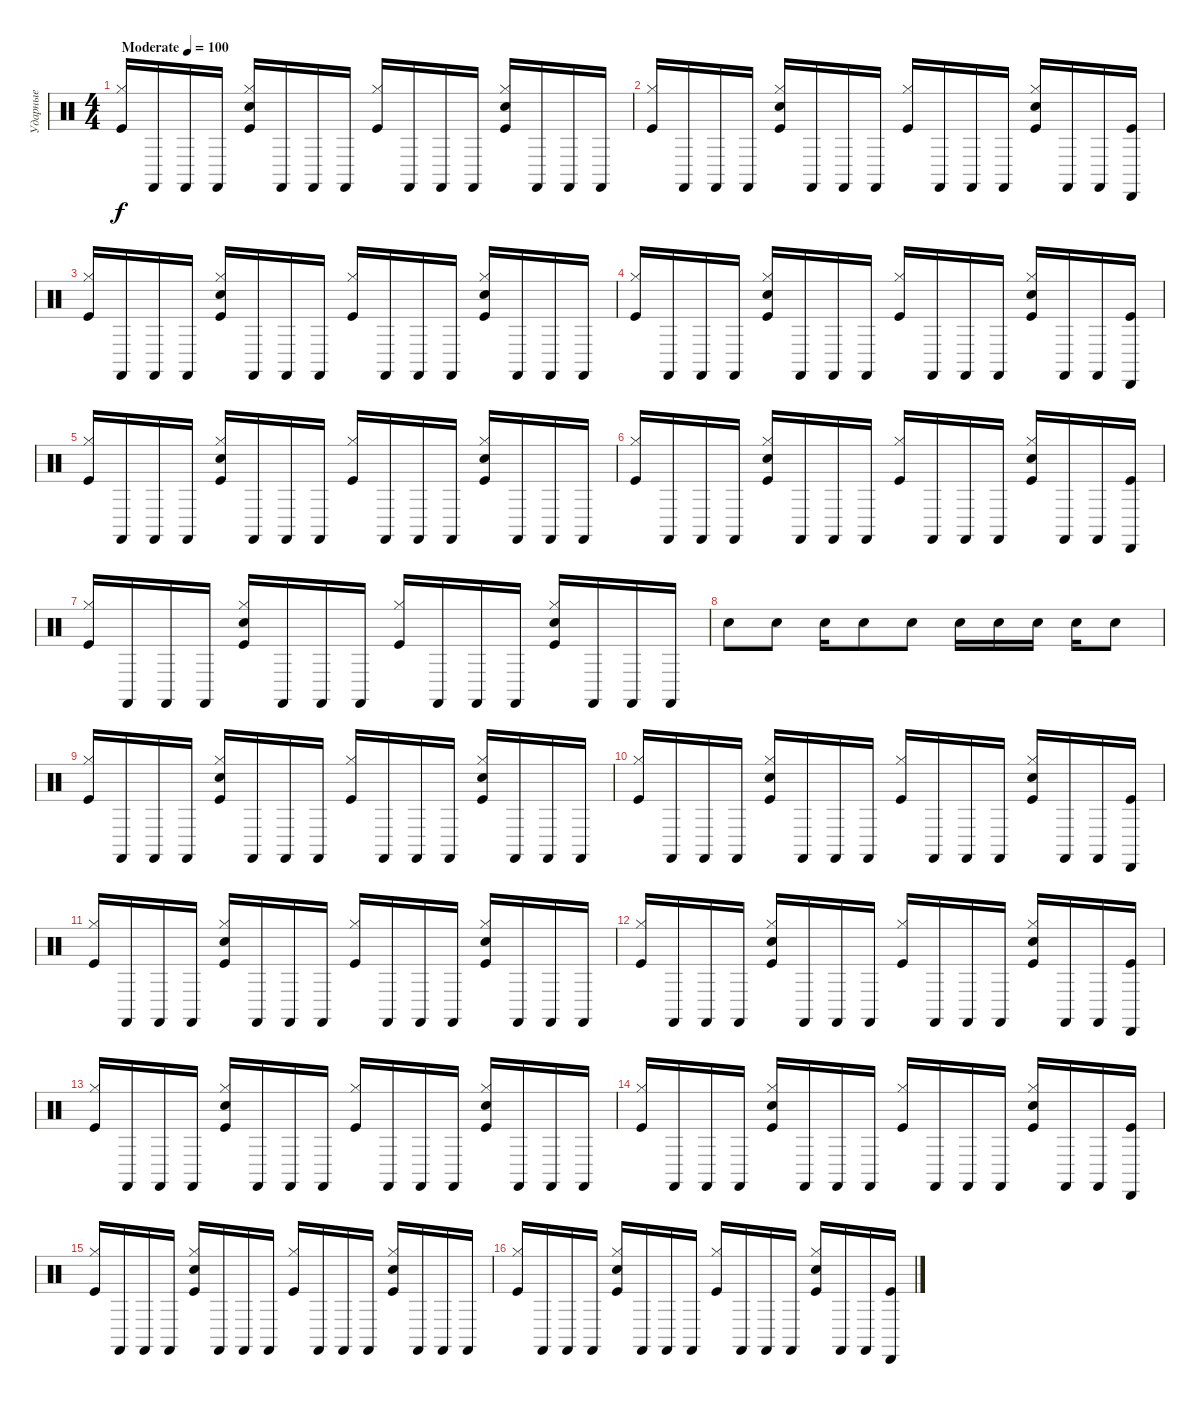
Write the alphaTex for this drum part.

\track ("Ударные" "Ударные") {instrument percussion}
\staff {score}
\articulation defaults
\ts (4 4)
\tempo (100 "Moderate")
\clef neutral
\ks c
("Kick (hit)" "Hi-Hat (closed)").16{dy f} "Castanets (hit)".16 "Castanets (hit)".16 "Castanets (hit)".16 ("Kick (hit)" "Hi-Hat (closed)" "Snare (hit) 2").16 "Castanets (hit)".16 "Castanets (hit)".16 "Castanets (hit)".16 ("Kick (hit)" "Hi-Hat (closed)").16 "Castanets (hit)".16 "Castanets (hit)".16 "Castanets (hit)".16 ("Kick (hit)" "Hi-Hat (closed)" "Snare (hit) 2").16 "Castanets (hit)".16 "Castanets (hit)".16 "Castanets (hit)".16 |
("Kick (hit)" "Hi-Hat (closed)").16 "Castanets (hit)".16 "Castanets (hit)".16 "Castanets (hit)".16 ("Kick (hit)" "Hi-Hat (closed)" "Snare (hit) 2").16 "Castanets (hit)".16 "Castanets (hit)".16 "Castanets (hit)".16 ("Kick (hit)" "Hi-Hat (closed)").16 "Castanets (hit)".16 "Castanets (hit)".16 "Castanets (hit)".16 ("Kick (hit)" "Hi-Hat (closed)" "Snare (hit) 2").16 "Castanets (hit)".16 "Castanets (hit)".16 ("Kick (hit)" "Cabasa (hit)").16 |
("Kick (hit)" "Hi-Hat (closed)").16 "Castanets (hit)".16 "Castanets (hit)".16 "Castanets (hit)".16 ("Kick (hit)" "Hi-Hat (closed)" "Snare (hit) 2").16 "Castanets (hit)".16 "Castanets (hit)".16 "Castanets (hit)".16 ("Kick (hit)" "Hi-Hat (closed)").16 "Castanets (hit)".16 "Castanets (hit)".16 "Castanets (hit)".16 ("Kick (hit)" "Hi-Hat (closed)" "Snare (hit) 2").16 "Castanets (hit)".16 "Castanets (hit)".16 "Castanets (hit)".16 |
("Kick (hit)" "Hi-Hat (closed)").16 "Castanets (hit)".16 "Castanets (hit)".16 "Castanets (hit)".16 ("Kick (hit)" "Hi-Hat (closed)" "Snare (hit) 2").16 "Castanets (hit)".16 "Castanets (hit)".16 "Castanets (hit)".16 ("Kick (hit)" "Hi-Hat (closed)").16 "Castanets (hit)".16 "Castanets (hit)".16 "Castanets (hit)".16 ("Kick (hit)" "Hi-Hat (closed)" "Snare (hit) 2").16 "Castanets (hit)".16 "Castanets (hit)".16 ("Kick (hit)" "Cabasa (hit)").16 |
("Kick (hit)" "Hi-Hat (closed)").16 "Castanets (hit)".16 "Castanets (hit)".16 "Castanets (hit)".16 ("Kick (hit)" "Hi-Hat (closed)" "Snare (hit) 2").16 "Castanets (hit)".16 "Castanets (hit)".16 "Castanets (hit)".16 ("Kick (hit)" "Hi-Hat (closed)").16 "Castanets (hit)".16 "Castanets (hit)".16 "Castanets (hit)".16 ("Kick (hit)" "Hi-Hat (closed)" "Snare (hit) 2").16 "Castanets (hit)".16 "Castanets (hit)".16 "Castanets (hit)".16 |
("Kick (hit)" "Hi-Hat (closed)").16 "Castanets (hit)".16 "Castanets (hit)".16 "Castanets (hit)".16 ("Kick (hit)" "Hi-Hat (closed)" "Snare (hit) 2").16 "Castanets (hit)".16 "Castanets (hit)".16 "Castanets (hit)".16 ("Kick (hit)" "Hi-Hat (closed)").16 "Castanets (hit)".16 "Castanets (hit)".16 "Castanets (hit)".16 ("Kick (hit)" "Hi-Hat (closed)" "Snare (hit) 2").16 "Castanets (hit)".16 "Castanets (hit)".16 ("Kick (hit)" "Cabasa (hit)").16 |
("Kick (hit)" "Hi-Hat (closed)").16 "Castanets (hit)".16 "Castanets (hit)".16 "Castanets (hit)".16 ("Kick (hit)" "Hi-Hat (closed)" "Snare (hit) 2").16 "Castanets (hit)".16 "Castanets (hit)".16 "Castanets (hit)".16 ("Kick (hit)" "Hi-Hat (closed)").16 "Castanets (hit)".16 "Castanets (hit)".16 "Castanets (hit)".16 ("Kick (hit)" "Hi-Hat (closed)" "Snare (hit) 2").16 "Castanets (hit)".16 "Castanets (hit)".16 "Castanets (hit)".16 |
"Electric Snare (hit)".8 "Electric Snare (hit)".8 "Electric Snare (hit)".16 "Electric Snare (hit)".8 "Electric Snare (hit)".8 "Electric Snare (hit)".16 "Electric Snare (hit)".16 "Electric Snare (hit)".16 "Electric Snare (hit)".16 "Electric Snare (hit)".8 |
("Kick (hit)" "Hi-Hat (closed)").16 "Castanets (hit)".16 "Castanets (hit)".16 "Castanets (hit)".16 ("Kick (hit)" "Hi-Hat (closed)" "Snare (hit) 2").16 "Castanets (hit)".16 "Castanets (hit)".16 "Castanets (hit)".16 ("Kick (hit)" "Hi-Hat (closed)").16 "Castanets (hit)".16 "Castanets (hit)".16 "Castanets (hit)".16 ("Kick (hit)" "Hi-Hat (closed)" "Snare (hit) 2").16 "Castanets (hit)".16 "Castanets (hit)".16 "Castanets (hit)".16 |
("Kick (hit)" "Hi-Hat (closed)").16 "Castanets (hit)".16 "Castanets (hit)".16 "Castanets (hit)".16 ("Kick (hit)" "Hi-Hat (closed)" "Snare (hit) 2").16 "Castanets (hit)".16 "Castanets (hit)".16 "Castanets (hit)".16 ("Kick (hit)" "Hi-Hat (closed)").16 "Castanets (hit)".16 "Castanets (hit)".16 "Castanets (hit)".16 ("Kick (hit)" "Hi-Hat (closed)" "Snare (hit) 2").16 "Castanets (hit)".16 "Castanets (hit)".16 ("Kick (hit)" "Cabasa (hit)").16 |
("Kick (hit)" "Hi-Hat (closed)").16 "Castanets (hit)".16 "Castanets (hit)".16 "Castanets (hit)".16 ("Kick (hit)" "Hi-Hat (closed)" "Snare (hit) 2").16 "Castanets (hit)".16 "Castanets (hit)".16 "Castanets (hit)".16 ("Kick (hit)" "Hi-Hat (closed)").16 "Castanets (hit)".16 "Castanets (hit)".16 "Castanets (hit)".16 ("Kick (hit)" "Hi-Hat (closed)" "Snare (hit) 2").16 "Castanets (hit)".16 "Castanets (hit)".16 "Castanets (hit)".16 |
("Kick (hit)" "Hi-Hat (closed)").16 "Castanets (hit)".16 "Castanets (hit)".16 "Castanets (hit)".16 ("Kick (hit)" "Hi-Hat (closed)" "Snare (hit) 2").16 "Castanets (hit)".16 "Castanets (hit)".16 "Castanets (hit)".16 ("Kick (hit)" "Hi-Hat (closed)").16 "Castanets (hit)".16 "Castanets (hit)".16 "Castanets (hit)".16 ("Kick (hit)" "Hi-Hat (closed)" "Snare (hit) 2").16 "Castanets (hit)".16 "Castanets (hit)".16 ("Kick (hit)" "Cabasa (hit)").16 |
("Kick (hit)" "Hi-Hat (closed)").16 "Castanets (hit)".16 "Castanets (hit)".16 "Castanets (hit)".16 ("Kick (hit)" "Hi-Hat (closed)" "Snare (hit) 2").16 "Castanets (hit)".16 "Castanets (hit)".16 "Castanets (hit)".16 ("Kick (hit)" "Hi-Hat (closed)").16 "Castanets (hit)".16 "Castanets (hit)".16 "Castanets (hit)".16 ("Kick (hit)" "Hi-Hat (closed)" "Snare (hit) 2").16 "Castanets (hit)".16 "Castanets (hit)".16 "Castanets (hit)".16 |
("Kick (hit)" "Hi-Hat (closed)").16 "Castanets (hit)".16 "Castanets (hit)".16 "Castanets (hit)".16 ("Kick (hit)" "Hi-Hat (closed)" "Snare (hit) 2").16 "Castanets (hit)".16 "Castanets (hit)".16 "Castanets (hit)".16 ("Kick (hit)" "Hi-Hat (closed)").16 "Castanets (hit)".16 "Castanets (hit)".16 "Castanets (hit)".16 ("Kick (hit)" "Hi-Hat (closed)" "Snare (hit) 2").16 "Castanets (hit)".16 "Castanets (hit)".16 ("Kick (hit)" "Cabasa (hit)").16 |
("Kick (hit)" "Hi-Hat (closed)").16 "Castanets (hit)".16 "Castanets (hit)".16 "Castanets (hit)".16 ("Kick (hit)" "Hi-Hat (closed)" "Snare (hit) 2").16 "Castanets (hit)".16 "Castanets (hit)".16 "Castanets (hit)".16 ("Kick (hit)" "Hi-Hat (closed)").16 "Castanets (hit)".16 "Castanets (hit)".16 "Castanets (hit)".16 ("Kick (hit)" "Hi-Hat (closed)" "Snare (hit) 2").16 "Castanets (hit)".16 "Castanets (hit)".16 "Castanets (hit)".16 |
("Kick (hit)" "Hi-Hat (closed)").16 "Castanets (hit)".16 "Castanets (hit)".16 "Castanets (hit)".16 ("Kick (hit)" "Hi-Hat (closed)" "Snare (hit) 2").16 "Castanets (hit)".16 "Castanets (hit)".16 "Castanets (hit)".16 ("Kick (hit)" "Hi-Hat (closed)").16 "Castanets (hit)".16 "Castanets (hit)".16 "Castanets (hit)".16 ("Kick (hit)" "Hi-Hat (closed)" "Snare (hit) 2").16 "Castanets (hit)".16 "Castanets (hit)".16 ("Kick (hit)" "Cabasa (hit)").16
